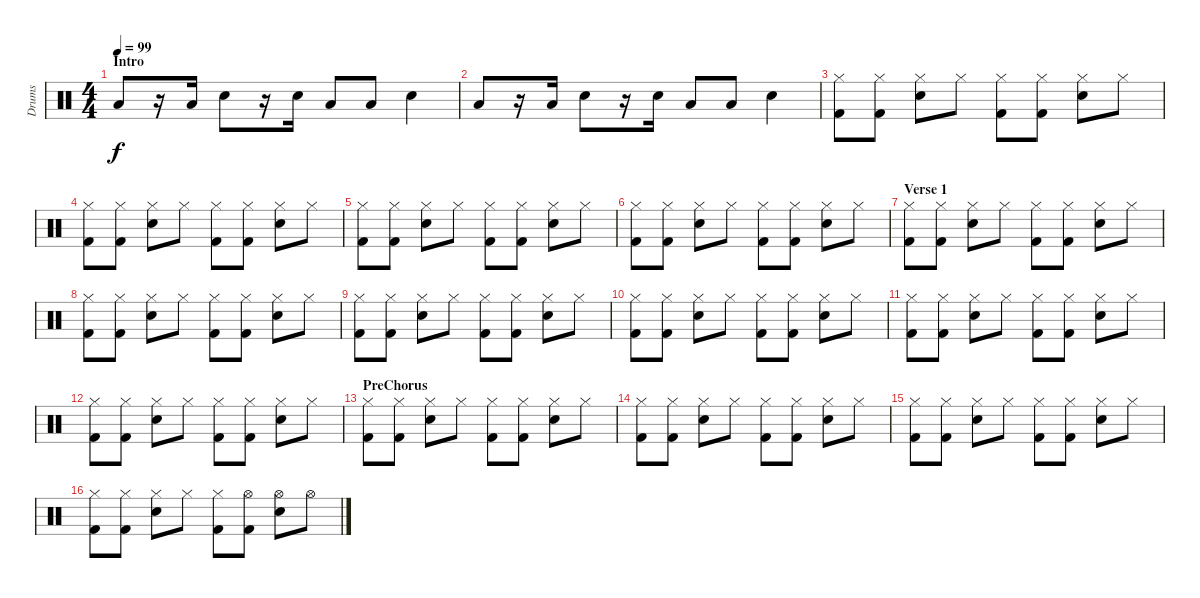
\track ("Drums " "Drums ") {instrument percussion}
\staff {score}
\articulation defaults
\ts (4 4)
\section ("" "Intro")
\tempo 99
\clef neutral
\ks c "Low Tom (hit)".8{dy f}
r.16 "Low Tom (hit)".16 "Electric Snare (hit)".8 r.16 "Electric Snare (hit)".16 "Low Tom (hit)".8 "Low Tom (hit)".8 "Electric Snare (hit)".4 |
"Low Tom (hit)".8 r.16 "Low Tom (hit)".16 "Electric Snare (hit)".8 r.16 "Electric Snare (hit)".16 "Low Tom (hit)".8 "Low Tom (hit)".8 "Electric Snare (hit)".4 |
("Hi-Hat (closed)" "Kick (hit) 2").8 ("Hi-Hat (closed)" "Kick (hit) 2").8 ("Hi-Hat (closed)" "Snare (hit) 2").8 "Hi-Hat (closed)".8 ("Hi-Hat (closed)" "Kick (hit) 2").8 ("Hi-Hat (closed)" "Kick (hit) 2").8 ("Hi-Hat (closed)" "Snare (hit) 2").8 "Hi-Hat (closed)".8 |
("Hi-Hat (closed)" "Kick (hit) 2").8 ("Hi-Hat (closed)" "Kick (hit) 2").8 ("Hi-Hat (closed)" "Snare (hit) 2").8 "Hi-Hat (closed)".8 ("Hi-Hat (closed)" "Kick (hit) 2").8 ("Hi-Hat (closed)" "Kick (hit) 2").8 ("Hi-Hat (closed)" "Snare (hit) 2").8 "Hi-Hat (closed)".8 |
("Hi-Hat (closed)" "Kick (hit) 2").8 ("Hi-Hat (closed)" "Kick (hit) 2").8 ("Hi-Hat (closed)" "Snare (hit) 2").8 "Hi-Hat (closed)".8 ("Hi-Hat (closed)" "Kick (hit) 2").8 ("Hi-Hat (closed)" "Kick (hit) 2").8 ("Hi-Hat (closed)" "Snare (hit) 2").8 "Hi-Hat (closed)".8 |
("Hi-Hat (closed)" "Kick (hit) 2").8 ("Hi-Hat (closed)" "Kick (hit) 2").8 ("Hi-Hat (closed)" "Snare (hit) 2").8 "Hi-Hat (closed)".8 ("Hi-Hat (closed)" "Kick (hit) 2").8 ("Hi-Hat (closed)" "Kick (hit) 2").8 ("Hi-Hat (closed)" "Snare (hit) 2").8 "Hi-Hat (closed)".8 |
\section ("" "Verse 1")
("Hi-Hat (closed)" "Kick (hit) 2").8 ("Hi-Hat (closed)" "Kick (hit) 2").8 ("Hi-Hat (closed)" "Snare (hit) 2").8 "Hi-Hat (closed)".8 ("Hi-Hat (closed)" "Kick (hit) 2").8 ("Hi-Hat (closed)" "Kick (hit) 2").8 ("Hi-Hat (closed)" "Snare (hit) 2").8 "Hi-Hat (closed)".8 |
("Hi-Hat (closed)" "Kick (hit) 2").8 ("Hi-Hat (closed)" "Kick (hit) 2").8 ("Hi-Hat (closed)" "Snare (hit) 2").8 "Hi-Hat (closed)".8 ("Hi-Hat (closed)" "Kick (hit) 2").8 ("Hi-Hat (closed)" "Kick (hit) 2").8 ("Hi-Hat (closed)" "Snare (hit) 2").8 "Hi-Hat (closed)".8 |
("Hi-Hat (closed)" "Kick (hit) 2").8 ("Hi-Hat (closed)" "Kick (hit) 2").8 ("Hi-Hat (closed)" "Snare (hit) 2").8 "Hi-Hat (closed)".8 ("Hi-Hat (closed)" "Kick (hit) 2").8 ("Hi-Hat (closed)" "Kick (hit) 2").8 ("Hi-Hat (closed)" "Snare (hit) 2").8 "Hi-Hat (closed)".8 |
("Hi-Hat (closed)" "Kick (hit) 2").8 ("Hi-Hat (closed)" "Kick (hit) 2").8 ("Hi-Hat (closed)" "Snare (hit) 2").8 "Hi-Hat (closed)".8 ("Hi-Hat (closed)" "Kick (hit) 2").8 ("Hi-Hat (closed)" "Kick (hit) 2").8 ("Hi-Hat (closed)" "Snare (hit) 2").8 "Hi-Hat (closed)".8 |
("Hi-Hat (closed)" "Kick (hit) 2").8 ("Hi-Hat (closed)" "Kick (hit) 2").8 ("Hi-Hat (closed)" "Snare (hit) 2").8 "Hi-Hat (closed)".8 ("Hi-Hat (closed)" "Kick (hit) 2").8 ("Hi-Hat (closed)" "Kick (hit) 2").8 ("Hi-Hat (closed)" "Snare (hit) 2").8 "Hi-Hat (closed)".8 |
("Hi-Hat (closed)" "Kick (hit) 2").8 ("Hi-Hat (closed)" "Kick (hit) 2").8 ("Hi-Hat (closed)" "Snare (hit) 2").8 "Hi-Hat (closed)".8 ("Hi-Hat (closed)" "Kick (hit) 2").8 ("Hi-Hat (closed)" "Kick (hit) 2").8 ("Hi-Hat (closed)" "Snare (hit) 2").8 "Hi-Hat (closed)".8 |
\section ("" "PreChorus")
("Hi-Hat (closed)" "Kick (hit) 2").8 ("Hi-Hat (closed)" "Kick (hit) 2").8 ("Hi-Hat (closed)" "Snare (hit) 2").8 "Hi-Hat (closed)".8 ("Hi-Hat (closed)" "Kick (hit) 2").8 ("Hi-Hat (closed)" "Kick (hit) 2").8 ("Hi-Hat (closed)" "Snare (hit) 2").8 "Hi-Hat (closed)".8 |
("Hi-Hat (closed)" "Kick (hit) 2").8 ("Hi-Hat (closed)" "Kick (hit) 2").8 ("Hi-Hat (closed)" "Snare (hit) 2").8 "Hi-Hat (closed)".8 ("Hi-Hat (closed)" "Kick (hit) 2").8 ("Hi-Hat (closed)" "Kick (hit) 2").8 ("Hi-Hat (closed)" "Snare (hit) 2").8 "Hi-Hat (closed)".8 |
("Hi-Hat (closed)" "Kick (hit) 2").8 ("Hi-Hat (closed)" "Kick (hit) 2").8 ("Hi-Hat (closed)" "Snare (hit) 2").8 "Hi-Hat (closed)".8 ("Hi-Hat (closed)" "Kick (hit) 2").8 ("Hi-Hat (closed)" "Kick (hit) 2").8 ("Hi-Hat (closed)" "Snare (hit) 2").8 "Hi-Hat (closed)".8 |
("Hi-Hat (closed)" "Kick (hit) 2").8 ("Hi-Hat (closed)" "Kick (hit) 2").8 ("Hi-Hat (closed)" "Snare (hit) 2").8 "Hi-Hat (closed)".8 ("Hi-Hat (closed)" "Kick (hit) 2").8 ("Hi-Hat (open)" "Kick (hit) 2").8 ("Hi-Hat (open)" "Snare (hit) 2").8 "Hi-Hat (open)".8
